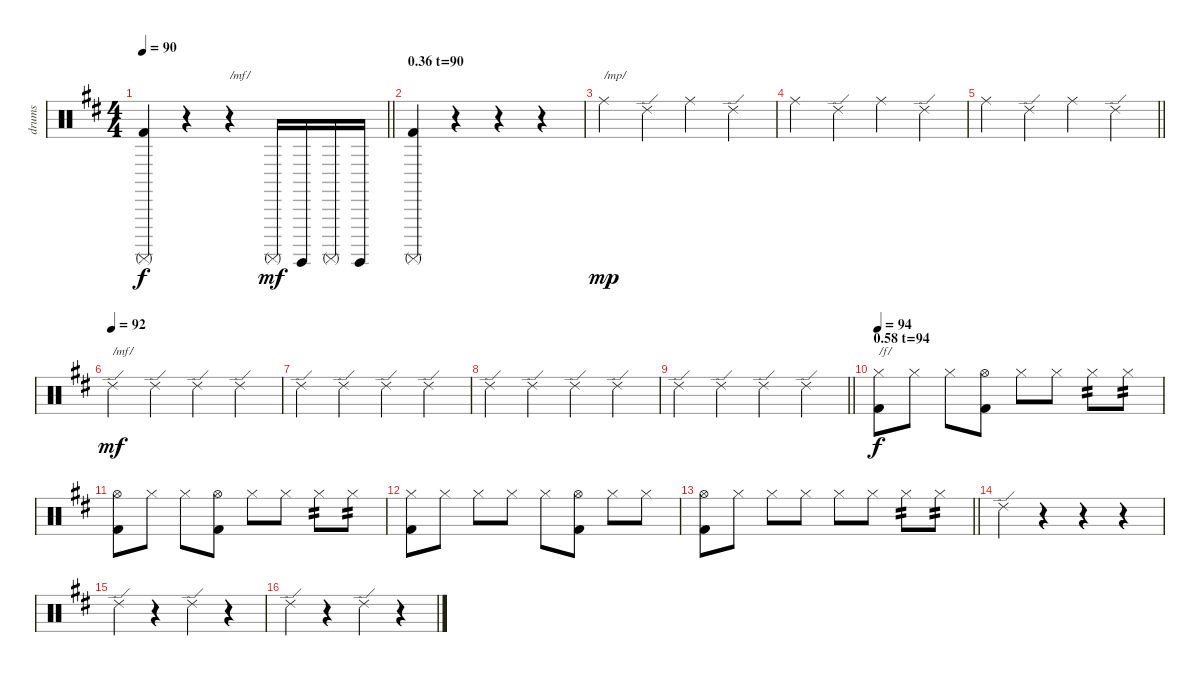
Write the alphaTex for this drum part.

\track ("drums" "drums") {instrument percussion}
\staff {score}
\articulation defaults
\ts (4 4)
\tempo 90
\clef neutral
\barLineRight lightlight
\ks d
("Surdo (mute)" "Kick (hit) 2").4{dy f} r.4 r.4{txt "/mf/"} "Surdo (mute)".16{dy mf} "Surdo (hit)".16 "Surdo (mute)".16 "Surdo (hit)".16 |
\section ("" "0.36 t=90")
("Surdo (mute)" "Kick (hit) 2").4 r.4 r.4 r.4 |
"Ride (middle)".4{txt "/mp/" dy mp} "Ride (edge) 2".4 "Ride (middle)".4 "Ride (edge) 2".4 |
"Ride (middle)".4 "Ride (edge) 2".4 "Ride (middle)".4 "Ride (edge) 2".4 |
\barLineRight lightlight "Ride (middle)".4 "Ride (edge) 2".4 "Ride (middle)".4 "Ride (edge) 2".4
|
\tempo (92)
"Ride (edge) 2".4{txt "/mf/" dy mf} "Ride (edge) 2".4 "Ride (edge) 2".4 "Ride (edge) 2".4 |
"Ride (edge) 2".4 "Ride (edge) 2".4 "Ride (edge) 2".4 "Ride (edge) 2".4 |
"Ride (edge) 2".4 "Ride (edge) 2".4 "Ride (edge) 2".4 "Ride (edge) 2".4 |
\barLineRight lightlight "Ride (edge) 2".4 "Ride (edge) 2".4 "Ride (edge) 2".4 "Ride (edge) 2".4
|
\section ("" "0.58 t=94")
\tempo 94
("Hi-Hat (closed)" "Kick (hit) 2").8{txt "/f/" dy f} "Hi-Hat (closed)".8 "Hi-Hat (closed)".8 ("Hi-Hat (open)" "Kick (hit) 2").8 "Hi-Hat (closed)".8 "Hi-Hat (closed)".8 "Hi-Hat (closed)".8{tp 2} "Hi-Hat (closed)".8{tp 2} |
("Hi-Hat (open)" "Kick (hit) 2").8 "Hi-Hat (closed)".8 "Hi-Hat (closed)".8 ("Hi-Hat (open)" "Kick (hit) 2").8 "Hi-Hat (closed)".8 "Hi-Hat (closed)".8 "Hi-Hat (closed)".8{tp 2} "Hi-Hat (closed)".8{tp 2} |
("Hi-Hat (closed)" "Kick (hit) 2").8 "Hi-Hat (closed)".8 "Hi-Hat (closed)".8 "Hi-Hat (closed)".8 "Hi-Hat (closed)".8 ("Hi-Hat (open)" "Kick (hit) 2").8 "Hi-Hat (closed)".8 "Hi-Hat (closed)".8 |
\barLineRight lightlight
("Hi-Hat (open)" "Kick (hit) 2").8 "Hi-Hat (closed)".8 "Hi-Hat (closed)".8 "Hi-Hat (closed)".8 "Hi-Hat (closed)".8 "Hi-Hat (closed)".8 "Hi-Hat (closed)".8{tp 2} "Hi-Hat (closed)".8{tp 2} |
"Ride (edge) 2".4 r.4 r.4 r.4 |
"Ride (edge) 2".4 r.4 "Ride (edge) 2".4 r.4 |
"Ride (edge) 2".4 r.4 "Ride (edge) 2".4 r.4
